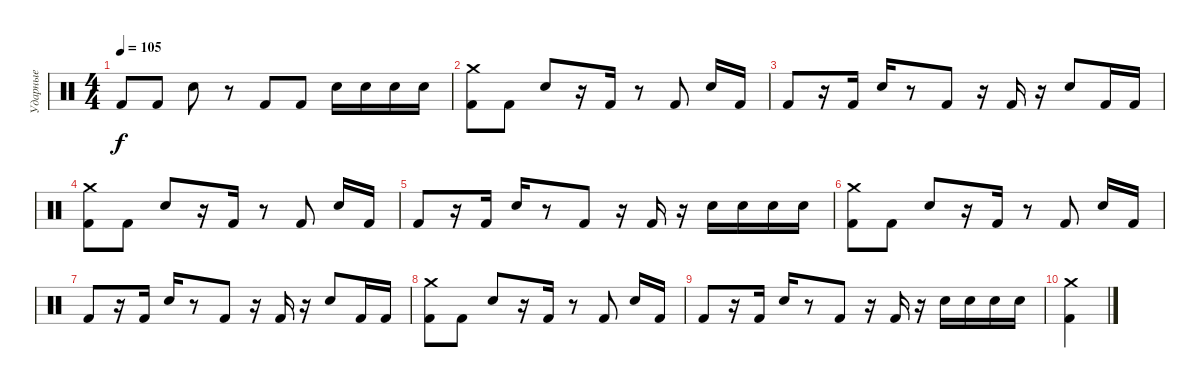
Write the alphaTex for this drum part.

\track ("Ударные" "Ударные") {instrument percussion}
\staff {score}
\articulation defaults
\ts (4 4)
\tempo 105
\clef neutral
\ks c "Kick (hit) 2".8{dy f} "Kick (hit) 2".8 "Electric Snare (hit)".8
r.8 "Kick (hit) 2".8 "Kick (hit) 2".8 "Electric Snare (hit)".16 "Electric Snare (hit)".16 "Electric Snare (hit)".16 "Electric Snare (hit)".16 |
("Crash medium (hit)" "Kick (hit) 2").8 "Kick (hit) 2".8 "Electric Snare (hit)".8 r.16 "Kick (hit) 2".16 r.8 "Kick (hit) 2".8 "Electric Snare (hit)".16 "Kick (hit) 2".16 |
"Kick (hit) 2".8 r.16 "Kick (hit) 2".16 "Electric Snare (hit)".16 r.8 "Kick (hit) 2".8 r.16 "Kick (hit) 2".16 r.16 "Electric Snare (hit)".8 "Kick (hit) 2".16 "Kick (hit) 2".16 |
("Crash medium (hit)" "Kick (hit) 2").8 "Kick (hit) 2".8 "Electric Snare (hit)".8 r.16 "Kick (hit) 2".16 r.8 "Kick (hit) 2".8 "Electric Snare (hit)".16 "Kick (hit) 2".16 |
"Kick (hit) 2".8 r.16 "Kick (hit) 2".16 "Electric Snare (hit)".16 r.8 "Kick (hit) 2".8 r.16 "Kick (hit) 2".16 r.16 "Electric Snare (hit)".16 "Electric Snare (hit)".16 "Electric Snare (hit)".16 "Electric Snare (hit)".16 |
("Crash medium (hit)" "Kick (hit) 2").8 "Kick (hit) 2".8 "Electric Snare (hit)".8 r.16 "Kick (hit) 2".16 r.8 "Kick (hit) 2".8 "Electric Snare (hit)".16 "Kick (hit) 2".16 |
"Kick (hit) 2".8 r.16 "Kick (hit) 2".16 "Electric Snare (hit)".16 r.8 "Kick (hit) 2".8 r.16 "Kick (hit) 2".16 r.16 "Electric Snare (hit)".8 "Kick (hit) 2".16 "Kick (hit) 2".16 |
("Crash medium (hit)" "Kick (hit) 2").8 "Kick (hit) 2".8 "Electric Snare (hit)".8 r.16 "Kick (hit) 2".16 r.8 "Kick (hit) 2".8 "Electric Snare (hit)".16 "Kick (hit) 2".16 |
"Kick (hit) 2".8 r.16 "Kick (hit) 2".16 "Electric Snare (hit)".16 r.8 "Kick (hit) 2".8 r.16 "Kick (hit) 2".16 r.16 "Electric Snare (hit)".16 "Electric Snare (hit)".16 "Electric Snare (hit)".16 "Electric Snare (hit)".16 |
("Crash medium (hit)" "Kick (hit) 2").4{volume 0}
